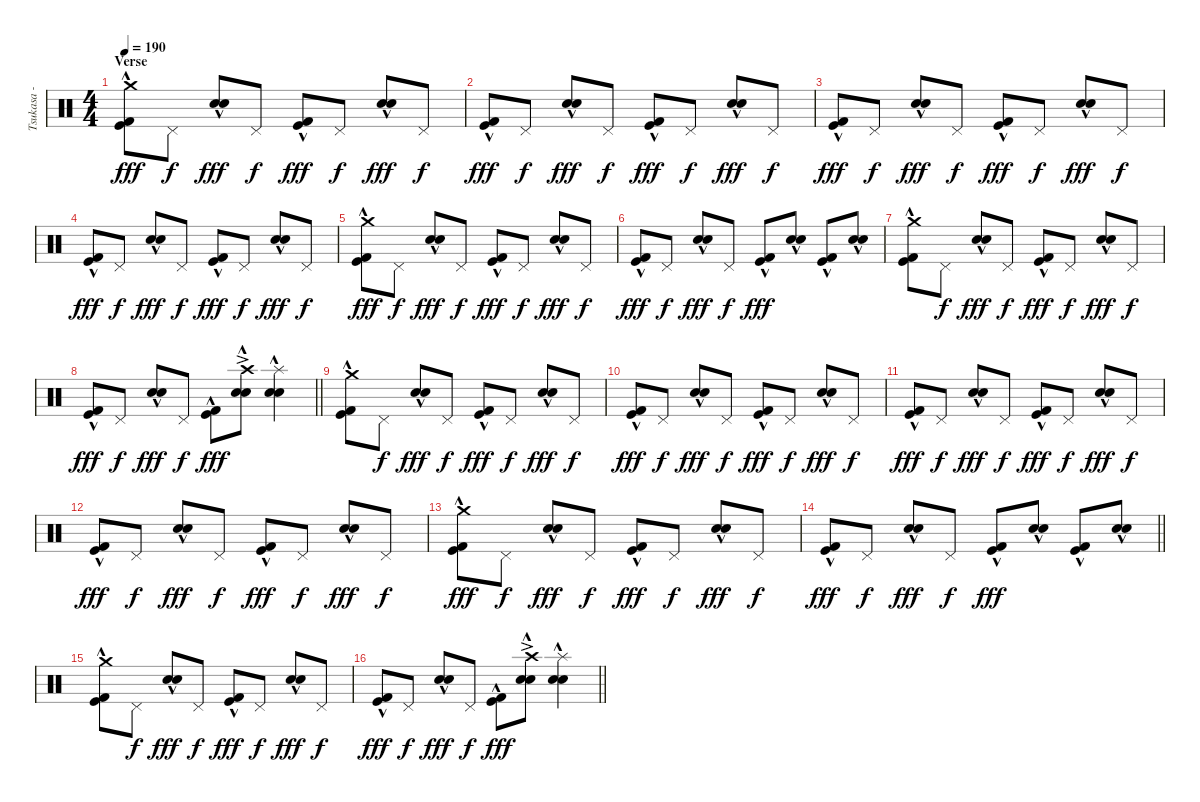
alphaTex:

\track ("Tsukasa - Drums" "Tsukasa - ") {instrument percussion}
\staff {score}
\articulation defaults
\ts (4 4)
\section ("" "Verse")
\tempo 190
\clef neutral
\ks c
("Crash medium (hit)" "Kick (hit)"{hac} "Kick (hit) 2"{hac}).8{dy fff} "Pedal Hi-Hat (hit)".8{dy f} ("Electric Snare (hit)"{hac} "Snare (hit) 2"{hac}).8{dy fff} "Pedal Hi-Hat (hit)".8{dy f} ("Kick (hit)"{hac} "Kick (hit) 2"{hac}).8{dy fff} "Pedal Hi-Hat (hit)".8{dy f} ("Electric Snare (hit)"{hac} "Snare (hit) 2").8{dy fff} "Pedal Hi-Hat (hit)".8{dy f} |
("Kick (hit)"{hac} "Kick (hit) 2"{hac}).8{dy fff} "Pedal Hi-Hat (hit)".8{dy f} ("Electric Snare (hit)"{hac} "Snare (hit) 2"{hac}).8{dy fff} "Pedal Hi-Hat (hit)".8{dy f} ("Kick (hit)"{hac} "Kick (hit) 2"{hac}).8{dy fff} "Pedal Hi-Hat (hit)".8{dy f} ("Electric Snare (hit)"{hac} "Snare (hit) 2").8{dy fff} "Pedal Hi-Hat (hit)".8{dy f} |
("Kick (hit)"{hac} "Kick (hit) 2"{hac}).8{dy fff} "Pedal Hi-Hat (hit)".8{dy f} ("Electric Snare (hit)"{hac} "Snare (hit) 2"{hac}).8{dy fff} "Pedal Hi-Hat (hit)".8{dy f} ("Kick (hit)"{hac} "Kick (hit) 2"{hac}).8{dy fff} "Pedal Hi-Hat (hit)".8{dy f} ("Electric Snare (hit)"{hac} "Snare (hit) 2").8{dy fff} "Pedal Hi-Hat (hit)".8{dy f} |
("Kick (hit)"{hac} "Kick (hit) 2"{hac}).8{dy fff} "Pedal Hi-Hat (hit)".8{dy f} ("Electric Snare (hit)"{hac} "Snare (hit) 2"{hac}).8{dy fff} "Pedal Hi-Hat (hit)".8{dy f} ("Kick (hit)"{hac} "Kick (hit) 2"{hac}).8{dy fff} "Pedal Hi-Hat (hit)".8{dy f} ("Electric Snare (hit)"{hac} "Snare (hit) 2").8{dy fff} "Pedal Hi-Hat (hit)".8{dy f} |
("Crash medium (hit)" "Kick (hit)"{hac} "Kick (hit) 2"{hac}).8{dy fff} "Pedal Hi-Hat (hit)".8{dy f} ("Electric Snare (hit)"{hac} "Snare (hit) 2"{hac}).8{dy fff} "Pedal Hi-Hat (hit)".8{dy f} ("Kick (hit)"{hac} "Kick (hit) 2"{hac}).8{dy fff} "Pedal Hi-Hat (hit)".8{dy f} ("Electric Snare (hit)"{hac} "Snare (hit) 2").8{dy fff} "Pedal Hi-Hat (hit)".8{dy f} |
("Kick (hit)"{hac} "Kick (hit) 2"{hac}).8{dy fff} "Pedal Hi-Hat (hit)".8{dy f} ("Electric Snare (hit)"{hac} "Snare (hit) 2"{hac}).8{dy fff} "Pedal Hi-Hat (hit)".8{dy f} ("Kick (hit)"{hac} "Kick (hit) 2"{hac}).8{dy fff} ("Electric Snare (hit)"{hac} "Snare (hit) 2"{hac}).8 ("Kick (hit)"{hac} "Kick (hit) 2"{hac}).8 ("Electric Snare (hit)"{hac} "Snare (hit) 2"{hac}).8 |
("Crash medium (hit)" "Kick (hit)"{hac} "Kick (hit) 2"{hac}).8 "Pedal Hi-Hat (hit)".8{dy f} ("Electric Snare (hit)"{hac} "Snare (hit) 2"{hac}).8{dy fff} "Pedal Hi-Hat (hit)".8{dy f} ("Kick (hit)"{hac} "Kick (hit) 2"{hac}).8{dy fff} "Pedal Hi-Hat (hit)".8{dy f} ("Electric Snare (hit)"{hac} "Snare (hit) 2").8{dy fff} "Pedal Hi-Hat (hit)".8{dy f} |
\barLineRight lightlight
("Kick (hit)"{hac} "Kick (hit) 2"{hac}).8{dy fff} "Pedal Hi-Hat (hit)".8{dy f} ("Electric Snare (hit)"{hac} "Snare (hit) 2").8{dy fff} "Pedal Hi-Hat (hit)".8{dy f} ("Kick (hit)"{hac} "Kick (hit) 2"{hac}).8{dy fff} ("Crash high (hit)"{ac} "Electric Snare (hit)"{hac} "Snare (hit) 2").8 ("Splash (hit)"{hac} "Electric Snare (hit)"{hac} "Snare (hit) 2").4 |
\section ("" "")
("Crash medium (hit)" "Kick (hit)"{hac} "Kick (hit) 2"{hac}).8 "Pedal Hi-Hat (hit)".8{dy f} ("Electric Snare (hit)"{hac} "Snare (hit) 2"{hac}).8{dy fff} "Pedal Hi-Hat (hit)".8{dy f} ("Kick (hit)"{hac} "Kick (hit) 2"{hac}).8{dy fff} "Pedal Hi-Hat (hit)".8{dy f} ("Electric Snare (hit)"{hac} "Snare (hit) 2").8{dy fff} "Pedal Hi-Hat (hit)".8{dy f} |
("Kick (hit)"{hac} "Kick (hit) 2"{hac}).8{dy fff} "Pedal Hi-Hat (hit)".8{dy f} ("Electric Snare (hit)"{hac} "Snare (hit) 2"{hac}).8{dy fff} "Pedal Hi-Hat (hit)".8{dy f} ("Kick (hit)"{hac} "Kick (hit) 2"{hac}).8{dy fff} "Pedal Hi-Hat (hit)".8{dy f} ("Electric Snare (hit)"{hac} "Snare (hit) 2").8{dy fff} "Pedal Hi-Hat (hit)".8{dy f} |
("Kick (hit)"{hac} "Kick (hit) 2"{hac}).8{dy fff} "Pedal Hi-Hat (hit)".8{dy f} ("Electric Snare (hit)"{hac} "Snare (hit) 2"{hac}).8{dy fff} "Pedal Hi-Hat (hit)".8{dy f} ("Kick (hit)"{hac} "Kick (hit) 2"{hac}).8{dy fff} "Pedal Hi-Hat (hit)".8{dy f} ("Electric Snare (hit)"{hac} "Snare (hit) 2").8{dy fff} "Pedal Hi-Hat (hit)".8{dy f} |
("Kick (hit)"{hac} "Kick (hit) 2"{hac}).8{dy fff} "Pedal Hi-Hat (hit)".8{dy f} ("Electric Snare (hit)"{hac} "Snare (hit) 2"{hac}).8{dy fff} "Pedal Hi-Hat (hit)".8{dy f} ("Kick (hit)"{hac} "Kick (hit) 2"{hac}).8{dy fff} "Pedal Hi-Hat (hit)".8{dy f} ("Electric Snare (hit)"{hac} "Snare (hit) 2").8{dy fff} "Pedal Hi-Hat (hit)".8{dy f} |
("Crash medium (hit)" "Kick (hit)"{hac} "Kick (hit) 2"{hac}).8{dy fff} "Pedal Hi-Hat (hit)".8{dy f} ("Electric Snare (hit)"{hac} "Snare (hit) 2"{hac}).8{dy fff} "Pedal Hi-Hat (hit)".8{dy f} ("Kick (hit)"{hac} "Kick (hit) 2"{hac}).8{dy fff} "Pedal Hi-Hat (hit)".8{dy f} ("Electric Snare (hit)"{hac} "Snare (hit) 2").8{dy fff} "Pedal Hi-Hat (hit)".8{dy f} |
\barLineRight lightlight
("Kick (hit)"{hac} "Kick (hit) 2"{hac}).8{dy fff} "Pedal Hi-Hat (hit)".8{dy f} ("Electric Snare (hit)"{hac} "Snare (hit) 2"{hac}).8{dy fff} "Pedal Hi-Hat (hit)".8{dy f} ("Kick (hit)"{hac} "Kick (hit) 2"{hac}).8{dy fff} ("Electric Snare (hit)"{hac} "Snare (hit) 2"{hac}).8 ("Kick (hit)"{hac} "Kick (hit) 2"{hac}).8 ("Electric Snare (hit)"{hac} "Snare (hit) 2"{hac}).8 |
("Crash medium (hit)" "Kick (hit)"{hac} "Kick (hit) 2"{hac}).8 "Pedal Hi-Hat (hit)".8{dy f} ("Electric Snare (hit)"{hac} "Snare (hit) 2"{hac}).8{dy fff} "Pedal Hi-Hat (hit)".8{dy f} ("Kick (hit)"{hac} "Kick (hit) 2"{hac}).8{dy fff} "Pedal Hi-Hat (hit)".8{dy f} ("Electric Snare (hit)"{hac} "Snare (hit) 2").8{dy fff} "Pedal Hi-Hat (hit)".8{dy f} |
\barLineRight lightlight
("Kick (hit)"{hac} "Kick (hit) 2"{hac}).8{dy fff} "Pedal Hi-Hat (hit)".8{dy f} ("Electric Snare (hit)"{hac} "Snare (hit) 2").8{dy fff} "Pedal Hi-Hat (hit)".8{dy f} ("Kick (hit)"{hac} "Kick (hit) 2"{hac}).8{dy fff} ("Crash high (hit)"{ac} "Electric Snare (hit)"{hac} "Snare (hit) 2").8 ("Splash (hit)"{hac} "Electric Snare (hit)"{hac} "Snare (hit) 2").4
